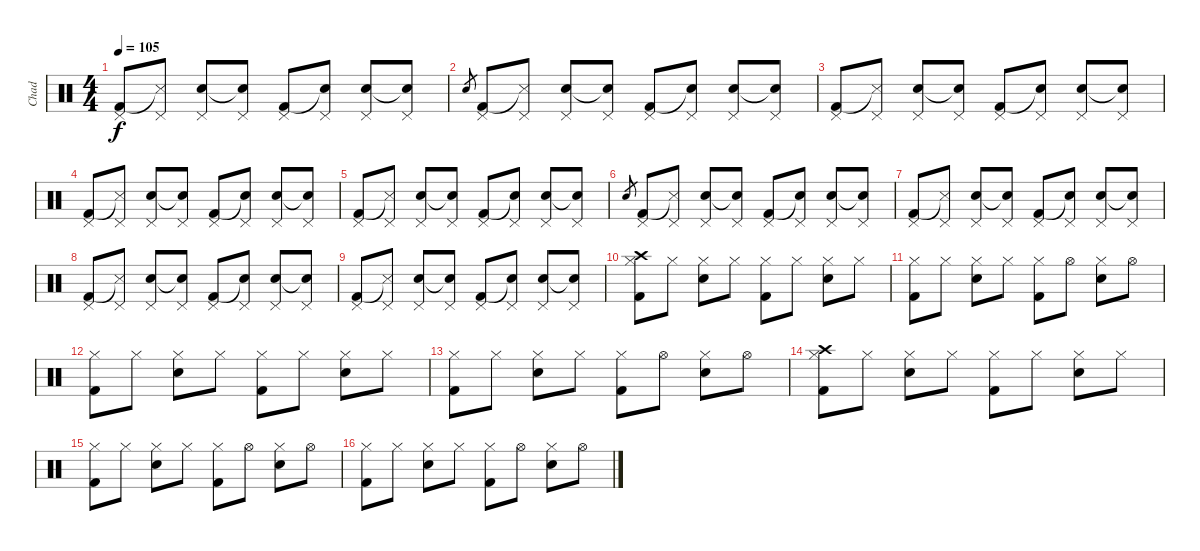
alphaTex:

\track ("Chad" "Chad") {instrument percussion}
\staff {score}
\articulation defaults
\ts (4 4)
\tempo 105
\clef neutral
\ks c
("Pedal Hi-Hat (hit)" "Kick (hit) 2").8{dy f} ("Pedal Hi-Hat (hit)" "Snare (side stick) 3"{t}).8 ("Pedal Hi-Hat (hit)" "Electric Snare (hit)").8 ("Pedal Hi-Hat (hit)" "Snare (hit)"{t}).8 ("Pedal Hi-Hat (hit)" "Kick (hit) 2").8 ("Pedal Hi-Hat (hit)" "Snare (hit)"{t}).8 ("Pedal Hi-Hat (hit)" "Electric Snare (hit)").8 ("Pedal Hi-Hat (hit)" "Snare (hit)"{t}).8 |
"Electric Snare (hit)".8{gr} ("Pedal Hi-Hat (hit)" "Kick (hit) 2").8 ("Pedal Hi-Hat (hit)" "Snare (side stick) 3"{t}).8 ("Pedal Hi-Hat (hit)" "Electric Snare (hit)").8 ("Pedal Hi-Hat (hit)" "Snare (hit)"{t}).8 ("Pedal Hi-Hat (hit)" "Kick (hit) 2").8 ("Pedal Hi-Hat (hit)" "Snare (hit)"{t}).8 ("Pedal Hi-Hat (hit)" "Electric Snare (hit)").8 ("Pedal Hi-Hat (hit)" "Snare (hit)"{t}).8 |
("Pedal Hi-Hat (hit)" "Kick (hit) 2").8 ("Pedal Hi-Hat (hit)" "Snare (side stick) 3"{t}).8 ("Pedal Hi-Hat (hit)" "Electric Snare (hit)").8 ("Pedal Hi-Hat (hit)" "Snare (hit)"{t}).8 ("Pedal Hi-Hat (hit)" "Kick (hit) 2").8 ("Pedal Hi-Hat (hit)" "Snare (hit)"{t}).8 ("Pedal Hi-Hat (hit)" "Electric Snare (hit)").8 ("Pedal Hi-Hat (hit)" "Snare (hit)"{t}).8 |
("Pedal Hi-Hat (hit)" "Kick (hit) 2").8 ("Pedal Hi-Hat (hit)" "Snare (side stick) 3"{t}).8 ("Pedal Hi-Hat (hit)" "Electric Snare (hit)").8 ("Pedal Hi-Hat (hit)" "Snare (hit)"{t}).8 ("Pedal Hi-Hat (hit)" "Kick (hit) 2").8 ("Pedal Hi-Hat (hit)" "Snare (hit)"{t}).8 ("Pedal Hi-Hat (hit)" "Electric Snare (hit)").8 ("Pedal Hi-Hat (hit)" "Snare (hit)"{t}).8 |
("Pedal Hi-Hat (hit)" "Kick (hit) 2").8 ("Pedal Hi-Hat (hit)" "Snare (side stick) 3"{t}).8 ("Pedal Hi-Hat (hit)" "Electric Snare (hit)").8 ("Pedal Hi-Hat (hit)" "Snare (hit)"{t}).8 ("Pedal Hi-Hat (hit)" "Kick (hit) 2").8 ("Pedal Hi-Hat (hit)" "Snare (hit)"{t}).8 ("Pedal Hi-Hat (hit)" "Electric Snare (hit)").8 ("Pedal Hi-Hat (hit)" "Snare (hit)"{t}).8 |
"Electric Snare (hit)".8{gr} ("Pedal Hi-Hat (hit)" "Kick (hit) 2").8 ("Pedal Hi-Hat (hit)" "Snare (side stick) 3"{t}).8 ("Pedal Hi-Hat (hit)" "Electric Snare (hit)").8 ("Pedal Hi-Hat (hit)" "Snare (hit)"{t}).8 ("Pedal Hi-Hat (hit)" "Kick (hit) 2").8 ("Pedal Hi-Hat (hit)" "Snare (hit)"{t}).8 ("Pedal Hi-Hat (hit)" "Electric Snare (hit)").8 ("Pedal Hi-Hat (hit)" "Snare (hit)"{t}).8 |
("Pedal Hi-Hat (hit)" "Kick (hit) 2").8 ("Pedal Hi-Hat (hit)" "Snare (side stick) 3"{t}).8 ("Pedal Hi-Hat (hit)" "Electric Snare (hit)").8 ("Pedal Hi-Hat (hit)" "Snare (hit)"{t}).8 ("Pedal Hi-Hat (hit)" "Kick (hit) 2").8 ("Pedal Hi-Hat (hit)" "Snare (hit)"{t}).8 ("Pedal Hi-Hat (hit)" "Electric Snare (hit)").8 ("Pedal Hi-Hat (hit)" "Snare (hit)"{t}).8 |
("Pedal Hi-Hat (hit)" "Kick (hit) 2").8 ("Pedal Hi-Hat (hit)" "Snare (side stick) 3"{t}).8 ("Pedal Hi-Hat (hit)" "Electric Snare (hit)").8 ("Pedal Hi-Hat (hit)" "Snare (hit)"{t}).8 ("Pedal Hi-Hat (hit)" "Kick (hit) 2").8 ("Pedal Hi-Hat (hit)" "Snare (hit)"{t}).8 ("Pedal Hi-Hat (hit)" "Electric Snare (hit)").8 ("Pedal Hi-Hat (hit)" "Snare (hit)"{t}).8 |
("Pedal Hi-Hat (hit)" "Kick (hit) 2").8 ("Pedal Hi-Hat (hit)" "Snare (side stick) 3"{t}).8 ("Pedal Hi-Hat (hit)" "Electric Snare (hit)").8 ("Pedal Hi-Hat (hit)" "Snare (hit)"{t}).8 ("Pedal Hi-Hat (hit)" "Kick (hit) 2").8 ("Pedal Hi-Hat (hit)" "Snare (hit)"{t}).8 ("Pedal Hi-Hat (hit)" "Electric Snare (hit)").8 ("Pedal Hi-Hat (hit)" "Snare (hit)"{t}).8 |
("Hi-Hat (closed)" "Kick (hit) 2" "Crash high (hit)").8 "Hi-Hat (closed)".8 ("Hi-Hat (closed)" "Electric Snare (hit)").8 "Hi-Hat (closed)".8 ("Hi-Hat (closed)" "Kick (hit) 2").8 "Hi-Hat (closed)".8 ("Hi-Hat (closed)" "Electric Snare (hit)").8 "Hi-Hat (closed)".8 |
("Hi-Hat (closed)" "Kick (hit) 2").8 "Hi-Hat (closed)".8 ("Hi-Hat (closed)" "Electric Snare (hit)").8 "Hi-Hat (closed)".8 ("Hi-Hat (closed)" "Kick (hit) 2").8 "Hi-Hat (open)".8 ("Hi-Hat (closed)" "Electric Snare (hit)").8 "Hi-Hat (open)".8 |
("Hi-Hat (closed)" "Kick (hit) 2").8 "Hi-Hat (closed)".8 ("Hi-Hat (closed)" "Electric Snare (hit)").8 "Hi-Hat (closed)".8 ("Hi-Hat (closed)" "Kick (hit) 2").8 "Hi-Hat (closed)".8 ("Hi-Hat (closed)" "Electric Snare (hit)").8 "Hi-Hat (closed)".8 |
("Hi-Hat (closed)" "Kick (hit) 2").8 "Hi-Hat (closed)".8 ("Hi-Hat (closed)" "Electric Snare (hit)").8 "Hi-Hat (closed)".8 ("Hi-Hat (closed)" "Kick (hit) 2").8 "Hi-Hat (open)".8 ("Hi-Hat (closed)" "Electric Snare (hit)").8 "Hi-Hat (open)".8 |
("Hi-Hat (closed)" "Kick (hit) 2" "Crash high (hit)").8 "Hi-Hat (closed)".8 ("Hi-Hat (closed)" "Electric Snare (hit)").8 "Hi-Hat (closed)".8 ("Hi-Hat (closed)" "Kick (hit) 2").8 "Hi-Hat (closed)".8 ("Hi-Hat (closed)" "Electric Snare (hit)").8 "Hi-Hat (closed)".8 |
("Hi-Hat (closed)" "Kick (hit) 2").8 "Hi-Hat (closed)".8 ("Hi-Hat (closed)" "Electric Snare (hit)").8 "Hi-Hat (closed)".8 ("Hi-Hat (closed)" "Kick (hit) 2").8 "Hi-Hat (open)".8 ("Hi-Hat (closed)" "Electric Snare (hit)").8 "Hi-Hat (open)".8 |
("Hi-Hat (closed)" "Kick (hit) 2").8 "Hi-Hat (closed)".8 ("Hi-Hat (closed)" "Electric Snare (hit)").8 "Hi-Hat (closed)".8 ("Hi-Hat (closed)" "Kick (hit) 2").8 "Hi-Hat (open)".8 ("Hi-Hat (closed)" "Electric Snare (hit)").8 "Hi-Hat (open)".8
